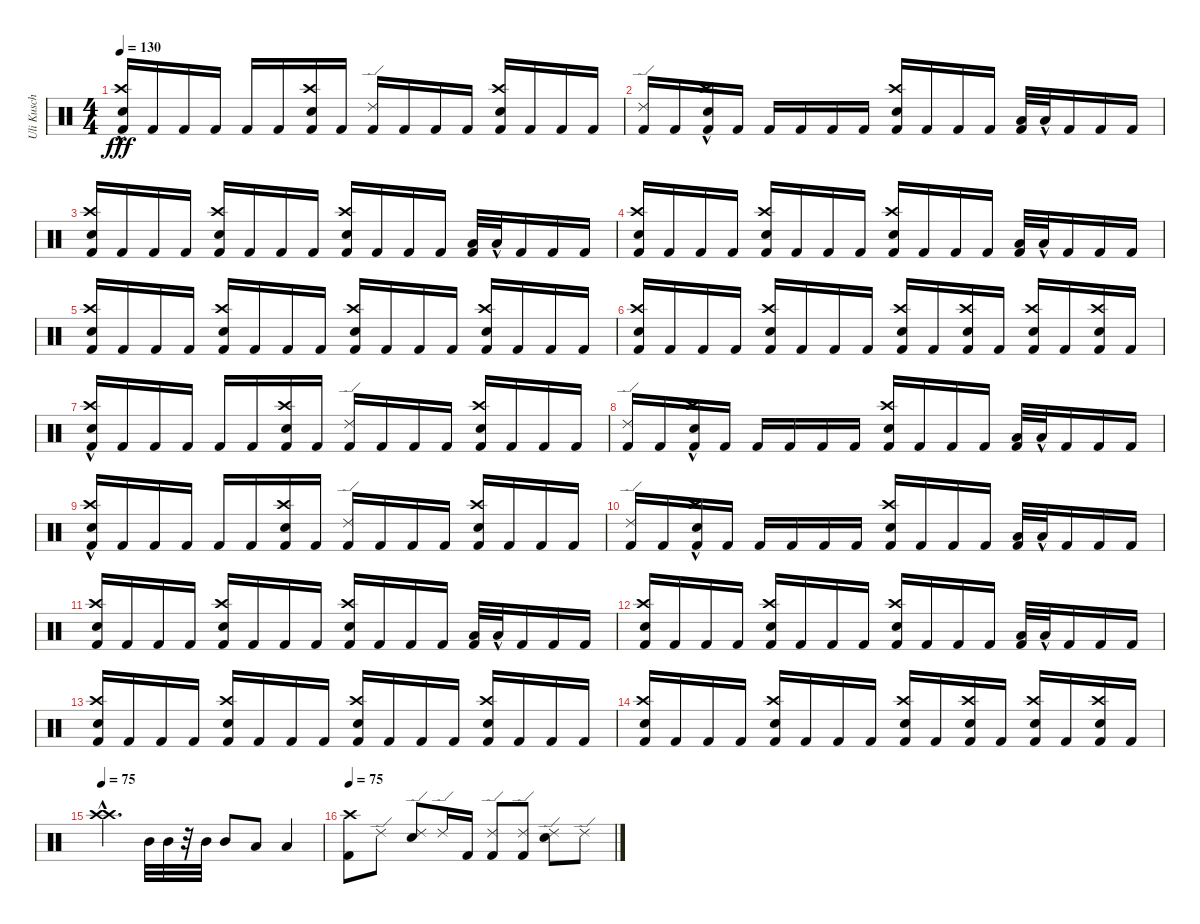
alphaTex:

\track ("Uli Kusch" "Uli Kusch") {instrument percussion}
\staff {score}
\articulation defaults
\ts (4 4)
\tempo 130
\clef neutral
\ks c
("Kick (hit) 2" "Crash high (hit)" "Electric Snare (hit)"{hac}).16{dy fff} "Kick (hit) 2".16 "Kick (hit) 2".16 "Kick (hit) 2".16 "Kick (hit) 2".16 "Kick (hit) 2".16 ("Kick (hit) 2" "Crash high (hit)" "Electric Snare (hit)").16 "Kick (hit) 2".16 ("Kick (hit) 2" "Ride (edge) 2").16 "Kick (hit) 2".16 "Kick (hit) 2".16 "Kick (hit) 2".16 ("Kick (hit) 2" "Electric Snare (hit)" "Crash high (hit)").16 "Kick (hit) 2".16 "Kick (hit) 2".16 "Kick (hit) 2".16 |
("Kick (hit) 2" "Ride (edge) 2").16 "Kick (hit) 2".16 ("Kick (hit) 2" "Crash high (hit)"{hac} "Electric Snare (hit)"{hac}).16 "Kick (hit) 2".16 "Kick (hit) 2".16 "Kick (hit) 2".16 "Kick (hit) 2".16 "Kick (hit) 2".16 ("Kick (hit) 2" "Crash high (hit)" "Electric Snare (hit)").16 "Kick (hit) 2".16 "Kick (hit) 2".16 "Kick (hit) 2".16 ("Kick (hit) 2" "Low Floor Tom (hit)").32 "Low Floor Tom (hit)"{hac}.32 "Kick (hit) 2".16 "Kick (hit) 2".16 "Kick (hit) 2".16 |
("Kick (hit) 2" "Electric Snare (hit)" "Crash high (hit)").16 "Kick (hit) 2".16 "Kick (hit) 2".16 "Kick (hit) 2".16 ("Kick (hit) 2" "Electric Snare (hit)" "Crash high (hit)").16 "Kick (hit) 2".16 "Kick (hit) 2".16 "Kick (hit) 2".16 ("Kick (hit) 2" "Electric Snare (hit)" "Crash high (hit)").16 "Kick (hit) 2".16 "Kick (hit) 2".16 "Kick (hit) 2".16 ("Kick (hit) 2" "Low Floor Tom (hit)").32 "Low Floor Tom (hit)"{hac}.32 "Kick (hit) 2".16 "Kick (hit) 2".16 "Kick (hit) 2".16 |
("Kick (hit) 2" "Electric Snare (hit)" "Crash high (hit)").16 "Kick (hit) 2".16 "Kick (hit) 2".16 "Kick (hit) 2".16 ("Kick (hit) 2" "Electric Snare (hit)" "Crash high (hit)").16 "Kick (hit) 2".16 "Kick (hit) 2".16 "Kick (hit) 2".16 ("Kick (hit) 2" "Electric Snare (hit)" "Crash high (hit)").16 "Kick (hit) 2".16 "Kick (hit) 2".16 "Kick (hit) 2".16 ("Kick (hit) 2" "Low Floor Tom (hit)").32 "Low Floor Tom (hit)"{hac}.32 "Kick (hit) 2".16 "Kick (hit) 2".16 "Kick (hit) 2".16 |
("Kick (hit) 2" "Electric Snare (hit)" "Crash high (hit)").16 "Kick (hit) 2".16 "Kick (hit) 2".16 "Kick (hit) 2".16 ("Kick (hit) 2" "Electric Snare (hit)" "Crash high (hit)").16 "Kick (hit) 2".16 "Kick (hit) 2".16 "Kick (hit) 2".16 ("Kick (hit) 2" "Electric Snare (hit)" "Crash high (hit)").16 "Kick (hit) 2".16 "Kick (hit) 2".16 "Kick (hit) 2".16 ("Kick (hit) 2" "Electric Snare (hit)" "Crash high (hit)").16 "Kick (hit) 2".16 "Kick (hit) 2".16 "Kick (hit) 2".16 |
("Kick (hit) 2" "Electric Snare (hit)" "Crash high (hit)").16 "Kick (hit) 2".16 "Kick (hit) 2".16 "Kick (hit) 2".16 ("Kick (hit) 2" "Electric Snare (hit)" "Crash high (hit)").16 "Kick (hit) 2".16 "Kick (hit) 2".16 "Kick (hit) 2".16 ("Kick (hit) 2" "Crash high (hit)" "Electric Snare (hit)").16 "Kick (hit) 2".16 ("Kick (hit) 2" "Crash high (hit)" "Electric Snare (hit)").16 "Kick (hit) 2".16 ("Kick (hit) 2" "Crash high (hit)" "Electric Snare (hit)").16 "Kick (hit) 2".16 ("Kick (hit) 2" "Crash high (hit)" "Electric Snare (hit)").16 "Kick (hit) 2".16 |
("Kick (hit) 2" "Crash high (hit)" "Electric Snare (hit)"{hac}).16 "Kick (hit) 2".16 "Kick (hit) 2".16 "Kick (hit) 2".16 "Kick (hit) 2".16 "Kick (hit) 2".16 ("Kick (hit) 2" "Crash high (hit)" "Electric Snare (hit)").16 "Kick (hit) 2".16 ("Kick (hit) 2" "Ride (edge) 2").16 "Kick (hit) 2".16 "Kick (hit) 2".16 "Kick (hit) 2".16 ("Kick (hit) 2" "Electric Snare (hit)" "Crash high (hit)").16 "Kick (hit) 2".16 "Kick (hit) 2".16 "Kick (hit) 2".16 |
("Kick (hit) 2" "Ride (edge) 2").16 "Kick (hit) 2".16 ("Kick (hit) 2" "Crash high (hit)"{hac} "Electric Snare (hit)"{hac}).16 "Kick (hit) 2".16 "Kick (hit) 2".16 "Kick (hit) 2".16 "Kick (hit) 2".16 "Kick (hit) 2".16 ("Kick (hit) 2" "Crash high (hit)" "Electric Snare (hit)").16 "Kick (hit) 2".16 "Kick (hit) 2".16 "Kick (hit) 2".16 ("Kick (hit) 2" "Low Floor Tom (hit)").32 "Low Floor Tom (hit)"{hac}.32 "Kick (hit) 2".16 "Kick (hit) 2".16 "Kick (hit) 2".16 |
("Kick (hit) 2" "Crash high (hit)" "Electric Snare (hit)"{hac}).16 "Kick (hit) 2".16 "Kick (hit) 2".16 "Kick (hit) 2".16 "Kick (hit) 2".16 "Kick (hit) 2".16 ("Kick (hit) 2" "Crash high (hit)" "Electric Snare (hit)").16 "Kick (hit) 2".16 ("Kick (hit) 2" "Ride (edge) 2").16 "Kick (hit) 2".16 "Kick (hit) 2".16 "Kick (hit) 2".16 ("Kick (hit) 2" "Electric Snare (hit)" "Crash high (hit)").16 "Kick (hit) 2".16 "Kick (hit) 2".16 "Kick (hit) 2".16 |
("Kick (hit) 2" "Ride (edge) 2").16 "Kick (hit) 2".16 ("Kick (hit) 2" "Crash high (hit)"{hac} "Electric Snare (hit)"{hac}).16 "Kick (hit) 2".16 "Kick (hit) 2".16 "Kick (hit) 2".16 "Kick (hit) 2".16 "Kick (hit) 2".16 ("Kick (hit) 2" "Crash high (hit)" "Electric Snare (hit)").16 "Kick (hit) 2".16 "Kick (hit) 2".16 "Kick (hit) 2".16 ("Kick (hit) 2" "Low Floor Tom (hit)").32 "Low Floor Tom (hit)"{hac}.32 "Kick (hit) 2".16 "Kick (hit) 2".16 "Kick (hit) 2".16 |
("Kick (hit) 2" "Electric Snare (hit)" "Crash high (hit)").16 "Kick (hit) 2".16 "Kick (hit) 2".16 "Kick (hit) 2".16 ("Kick (hit) 2" "Electric Snare (hit)" "Crash high (hit)").16 "Kick (hit) 2".16 "Kick (hit) 2".16 "Kick (hit) 2".16 ("Kick (hit) 2" "Electric Snare (hit)" "Crash high (hit)").16 "Kick (hit) 2".16 "Kick (hit) 2".16 "Kick (hit) 2".16 ("Kick (hit) 2" "Low Floor Tom (hit)").32 "Low Floor Tom (hit)"{hac}.32 "Kick (hit) 2".16 "Kick (hit) 2".16 "Kick (hit) 2".16 |
("Kick (hit) 2" "Electric Snare (hit)" "Crash high (hit)").16 "Kick (hit) 2".16 "Kick (hit) 2".16 "Kick (hit) 2".16 ("Kick (hit) 2" "Electric Snare (hit)" "Crash high (hit)").16 "Kick (hit) 2".16 "Kick (hit) 2".16 "Kick (hit) 2".16 ("Kick (hit) 2" "Electric Snare (hit)" "Crash high (hit)").16 "Kick (hit) 2".16 "Kick (hit) 2".16 "Kick (hit) 2".16 ("Kick (hit) 2" "Low Floor Tom (hit)").32 "Low Floor Tom (hit)"{hac}.32 "Kick (hit) 2".16 "Kick (hit) 2".16 "Kick (hit) 2".16 |
("Kick (hit) 2" "Electric Snare (hit)" "Crash high (hit)").16 "Kick (hit) 2".16 "Kick (hit) 2".16 "Kick (hit) 2".16 ("Kick (hit) 2" "Electric Snare (hit)" "Crash high (hit)").16 "Kick (hit) 2".16 "Kick (hit) 2".16 "Kick (hit) 2".16 ("Kick (hit) 2" "Electric Snare (hit)" "Crash high (hit)").16 "Kick (hit) 2".16 "Kick (hit) 2".16 "Kick (hit) 2".16 ("Kick (hit) 2" "Electric Snare (hit)" "Crash high (hit)").16 "Kick (hit) 2".16 "Kick (hit) 2".16 "Kick (hit) 2".16 |
("Kick (hit) 2" "Electric Snare (hit)" "Crash high (hit)").16 "Kick (hit) 2".16 "Kick (hit) 2".16 "Kick (hit) 2".16 ("Kick (hit) 2" "Electric Snare (hit)" "Crash high (hit)").16 "Kick (hit) 2".16 "Kick (hit) 2".16 "Kick (hit) 2".16 ("Kick (hit) 2" "Crash high (hit)" "Electric Snare (hit)").16 "Kick (hit) 2".16 ("Kick (hit) 2" "Crash high (hit)" "Electric Snare (hit)").16 "Kick (hit) 2".16 ("Kick (hit) 2" "Crash high (hit)" "Electric Snare (hit)").16 "Kick (hit) 2".16 ("Kick (hit) 2" "Crash high (hit)" "Electric Snare (hit)").16 "Kick (hit) 2".16 |
\tempo 75
("Crash high (hit)" "Crash high (hit)"{hac}).4{d} "Mid Tom (hit)".32 "Mid Tom (hit)".32 r.32 "Mid Tom (hit)".32 "Mid Tom (hit)".8 "Low Tom (hit)".8 "Low Floor Tom (hit)".4 |
\tempo 75
("Kick (hit) 2" "Crash high (hit)").8 "Ride (edge) 2".8 ("Electric Snare (hit)" "Ride (edge) 2").8 "Ride (edge) 2".16 "Kick (hit) 2".16 ("Kick (hit) 2" "Ride (edge) 2").8 ("Kick (hit) 2" "Ride (edge) 2").8 ("Electric Snare (hit)" "Ride (edge) 2").8 "Ride (edge) 2".8
